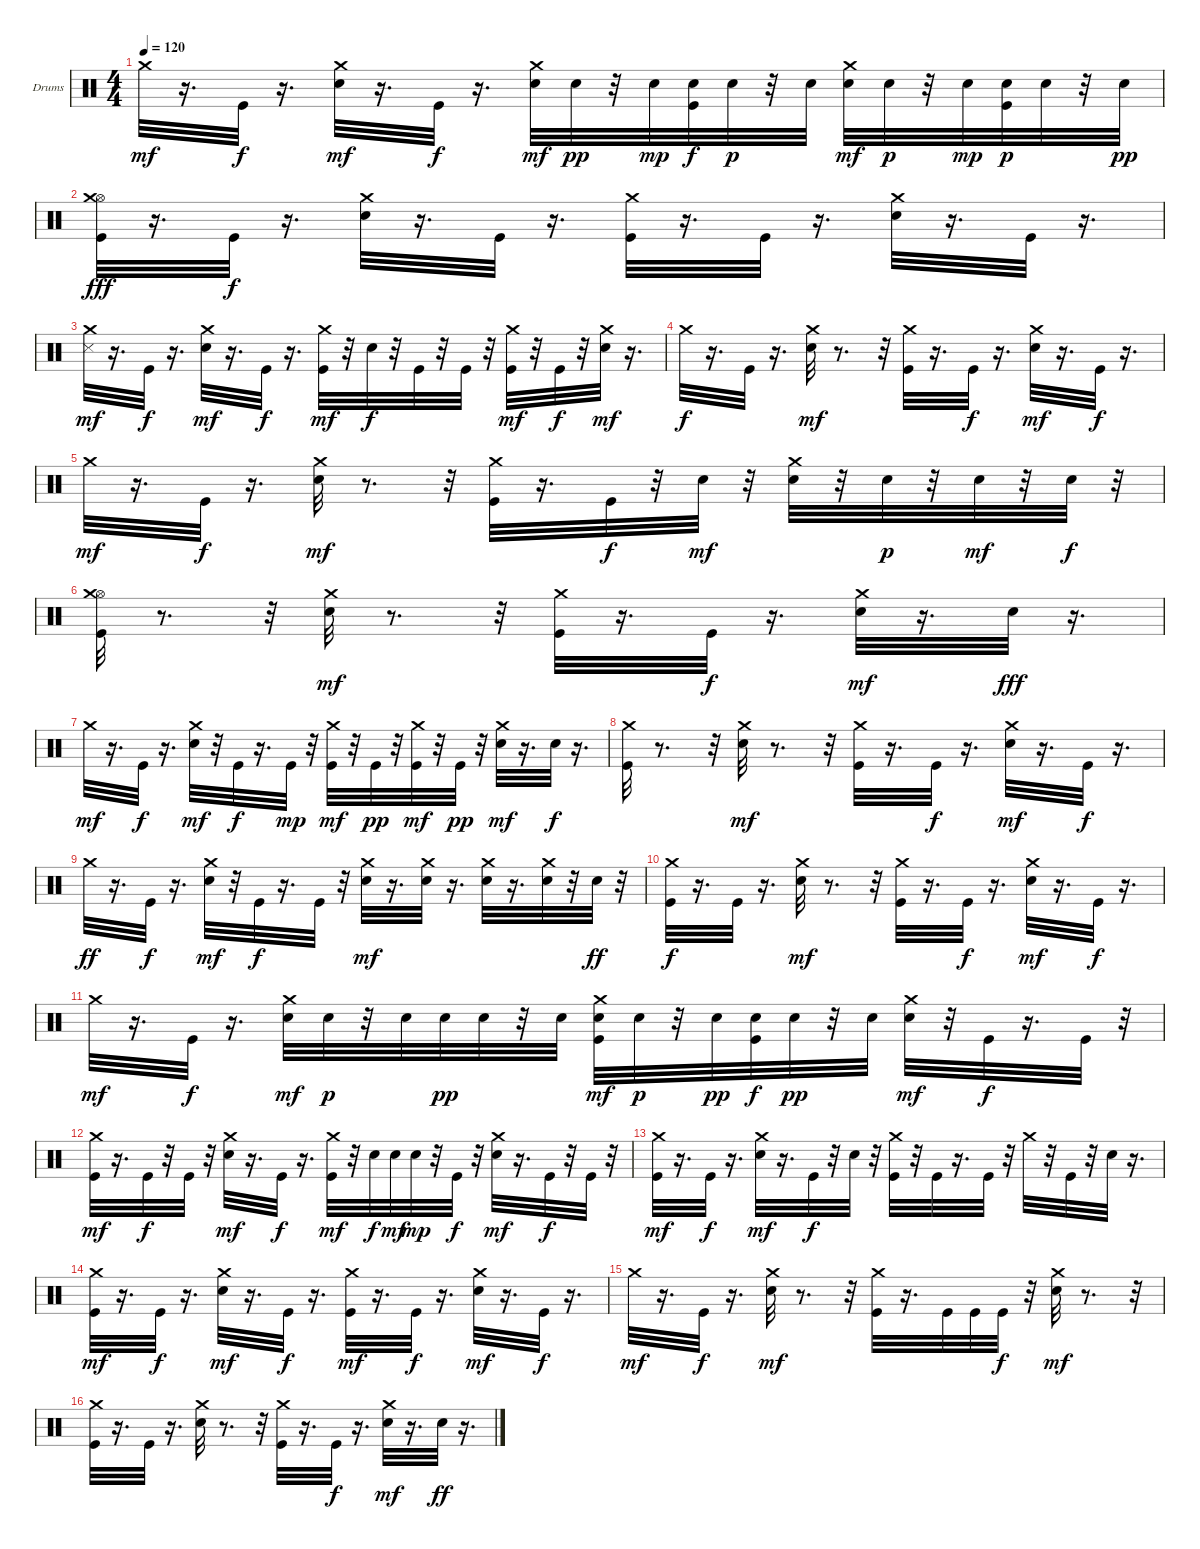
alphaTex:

\bracketExtendMode groupsimilarinstruments
\firstSystemTrackNameOrientation horizontal
\otherSystemsTrackNameOrientation horizontal
\track ("Drumkit" "Drums") {instrument percussion}
\staff {score}
\articulation defaults
\ts (4 4)
\tempo 120
\clef neutral
\ks c "Crash medium (hit)".32{dy mf}
r.16{d} "Kick (hit)".32{dy f} r.16{d} ("Crash medium (hit)" "Snare (hit) 2").32{dy mf} r.16{d} "Kick (hit)".32{dy f} r.16{d} ("Crash medium (hit)" "Snare (hit) 2").32{dy mf} "Snare (hit) 2".32{dy pp} r.32 "Snare (hit) 2".32{dy mp} ("Kick (hit)" "Snare (hit) 2").32{dy f} "Snare (hit) 2".32{dy p} r.32 "Snare (hit) 2".32 ("Crash medium (hit)" "Snare (hit) 2").32{dy mf} "Snare (hit) 2".32{dy p} r.32 "Snare (hit) 2".32{dy mp} ("Snare (hit) 2" "Kick (hit)").32{dy p} "Snare (hit) 2".32 r.32 "Snare (hit) 2".32{dy pp} |
("Hi-Hat (open)" "Crash medium (hit)" "Kick (hit)").32{dy fff} r.16{d} "Kick (hit)".32{dy f} r.16{d} ("Crash medium (hit)" "Snare (hit) 2").32 r.16{d} "Kick (hit)".32 r.16{d} ("Crash medium (hit)" "Kick (hit)").32 r.16{d} "Kick (hit)".32 r.16{d} ("Crash medium (hit)" "Snare (hit) 2").32 r.16{d} "Kick (hit)".32 r.16{d} |
("Crash medium (hit)" "Snare (side stick) 3").32{dy mf} r.16{d} "Kick (hit)".32{dy f} r.16{d} ("Crash medium (hit)" "Snare (hit) 2").32{dy mf} r.16{d} "Kick (hit)".32{dy f} r.16{d} ("Crash medium (hit)" "Kick (hit)").32{dy mf} r.32 "Snare (hit) 2".32{dy f} r.32 "Kick (hit)".32 r.32 "Kick (hit)".32 r.32 ("Crash medium (hit)" "Kick (hit)").32{dy mf} r.32 "Kick (hit)".32{dy f} r.32 ("Crash medium (hit)" "Snare (hit) 2").32{dy mf} r.16{d} |
"Crash medium (hit)".32{dy f} r.16{d} "Kick (hit)".32 r.16{d} ("Crash medium (hit)" "Snare (hit) 2").32{dy mf} r.8{d} r.32 ("Crash medium (hit)" "Kick (hit)").32 r.16{d} "Kick (hit)".32{dy f} r.16{d} ("Crash medium (hit)" "Snare (hit) 2").32{dy mf} r.16{d} "Kick (hit)".32{dy f} r.16{d} |
"Crash medium (hit)".32{dy mf} r.16{d} "Kick (hit)".32{dy f} r.16{d} ("Crash medium (hit)" "Snare (hit) 2").32{dy mf} r.8{d} r.32 ("Crash medium (hit)" "Kick (hit)").32 r.16{d} "Kick (hit)".32{dy f} r.32 "Snare (hit) 2".32{dy mf} r.32 ("Crash medium (hit)" "Snare (hit) 2").32 r.32 "Snare (hit) 2".32{dy p} r.32 "Snare (hit) 2".32{dy mf} r.32 "Snare (hit) 2".32{dy f} r.32 |
("Hi-Hat (open)" "Crash medium (hit)" "Kick (hit)").32 r.8{d} r.32 ("Crash medium (hit)" "Snare (hit) 2").32{dy mf} r.8{d} r.32 ("Crash medium (hit)" "Kick (hit)").32 r.16{d} "Kick (hit)".32{dy f} r.16{d} ("Crash medium (hit)" "Snare (hit) 2").32{dy mf} r.16{d} "Snare (hit) 2".32{dy fff} r.16{d} |
"Crash medium (hit)".32{dy mf} r.16{d} "Kick (hit)".32{dy f} r.16{d} ("Crash medium (hit)" "Snare (hit) 2").32{dy mf} r.32 "Kick (hit)".32{dy f} r.16{d} "Kick (hit)".32{dy mp} r.32 ("Crash medium (hit)" "Kick (hit)").32{dy mf} r.32 "Kick (hit)".32{dy pp} r.32 ("Crash medium (hit)" "Kick (hit)").32{dy mf} r.32 "Kick (hit)".32{dy pp} r.32 ("Crash medium (hit)" "Snare (hit) 2").32{dy mf} r.16{d} "Snare (hit) 2".32{dy f} r.16{d} |
("Kick (hit)" "Crash medium (hit)").32 r.8{d} r.32 ("Crash medium (hit)" "Snare (hit) 2").32{dy mf} r.8{d} r.32 ("Crash medium (hit)" "Kick (hit)").32 r.16{d} "Kick (hit)".32{dy f} r.16{d} ("Crash medium (hit)" "Snare (hit) 2").32{dy mf} r.16{d} "Kick (hit)".32{dy f} r.16{d} |
"Crash medium (hit)".32{dy ff} r.16{d} "Kick (hit)".32{dy f} r.16{d} ("Crash medium (hit)" "Snare (hit) 2").32{dy mf} r.32 "Kick (hit)".32{dy f} r.16{d} "Kick (hit)".32 r.32 ("Crash medium (hit)" "Snare (hit) 2").32{dy mf} r.16{d} ("Crash medium (hit)" "Snare (hit) 2").32 r.16{d} ("Crash medium (hit)" "Snare (hit) 2").32 r.16{d} ("Crash medium (hit)" "Snare (hit) 2").32 r.32 "Snare (hit) 2".32{dy ff} r.32 |
("Crash medium (hit)" "Kick (hit)").32{dy f} r.16{d} "Kick (hit)".32 r.16{d} ("Crash medium (hit)" "Snare (hit) 2").32{dy mf} r.8{d} r.32 ("Crash medium (hit)" "Kick (hit)").32 r.16{d} "Kick (hit)".32{dy f} r.16{d} ("Crash medium (hit)" "Snare (hit) 2").32{dy mf} r.16{d} "Kick (hit)".32{dy f} r.16{d} |
"Crash medium (hit)".32{dy mf} r.16{d} "Kick (hit)".32{dy f} r.16{d} ("Crash medium (hit)" "Snare (hit) 2").32{dy mf} "Snare (hit) 2".32{dy p} r.32 "Snare (hit) 2".32 "Snare (hit) 2".32{dy pp} "Snare (hit) 2".32 r.32 "Snare (hit) 2".32 ("Crash medium (hit)" "Kick (hit)" "Snare (hit) 2").32{dy mf} "Snare (hit) 2".32{dy p} r.32 "Snare (hit) 2".32{dy pp} ("Kick (hit)" "Snare (hit) 2").32{dy f} "Snare (hit) 2".32{dy pp} r.32 "Snare (hit) 2".32 ("Crash medium (hit)" "Snare (hit) 2").32{dy mf} r.32 "Kick (hit)".32{dy f} r.16{d} "Kick (hit)".32 r.32 |
("Crash medium (hit)" "Kick (hit)").32{dy mf} r.16{d} "Kick (hit)".32{dy f} r.32 "Kick (hit)".32 r.32 ("Crash medium (hit)" "Snare (hit) 2").32{dy mf} r.16{d} "Kick (hit)".32{dy f} r.16{d} ("Crash medium (hit)" "Kick (hit)").32{dy mf} r.32 "Snare (hit) 2".32{dy f} "Snare (hit) 2".32{dy mf} "Snare (hit) 2".32{dy mp} r.32 "Kick (hit)".32{dy f} r.32 ("Crash medium (hit)" "Snare (hit) 2").32{dy mf} r.16{d} "Kick (hit)".32{dy f} r.32 "Kick (hit)".32 r.32 |
("Crash medium (hit)" "Kick (hit)").32{dy mf} r.16{d} "Kick (hit)".32{dy f} r.16{d} ("Crash medium (hit)" "Snare (hit) 2").32{dy mf} r.16{d} "Kick (hit)".32{dy f} r.32 "Snare (hit) 2".32 r.32 ("Crash medium (hit)" "Kick (hit)").32 r.32 "Kick (hit)".32 r.16{d} "Kick (hit)".32 r.32 "Crash medium (hit)".32 r.32 "Kick (hit)".32 r.32 "Snare (hit) 2".32 r.16{d} |
("Crash medium (hit)" "Kick (hit)").32{dy mf} r.16{d} "Kick (hit)".32{dy f} r.16{d} ("Crash medium (hit)" "Snare (hit) 2").32{dy mf} r.16{d} "Kick (hit)".32{dy f} r.16{d} ("Crash medium (hit)" "Kick (hit)").32{dy mf} r.16{d} "Kick (hit)".32{dy f} r.16{d} ("Crash medium (hit)" "Snare (hit) 2").32{dy mf} r.16{d} "Kick (hit)".32{dy f} r.16{d} |
"Crash medium (hit)".32{dy mf} r.16{d} "Kick (hit)".32{dy f} r.16{d} ("Crash medium (hit)" "Snare (hit) 2").32{dy mf} r.8{d} r.32 ("Crash medium (hit)" "Kick (hit)").32 r.16{d} "Kick (hit)".32 "Kick (hit)".32 "Kick (hit)".32{dy f} r.32 ("Crash medium (hit)" "Snare (hit) 2").32{dy mf} r.8{d} r.32 |
("Crash medium (hit)" "Kick (hit)").32 r.16{d} "Kick (hit)".32 r.16{d} ("Crash medium (hit)" "Snare (hit) 2").32 r.8{d} r.32 ("Crash medium (hit)" "Kick (hit)").32 r.16{d} "Kick (hit)".32{dy f} r.16{d} ("Crash medium (hit)" "Snare (hit) 2").32{dy mf} r.16{d} "Snare (hit) 2".32{dy ff} r.16{d}
